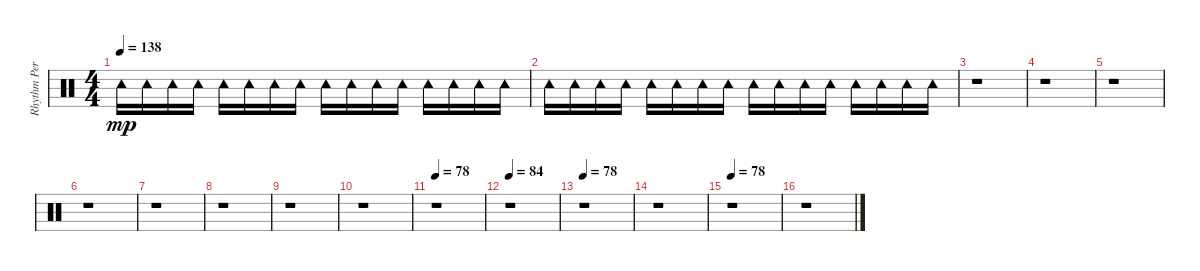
\track ("Rhythm Percussion" "Rhythm Per") {instrument percussion}
\staff {score}
\articulation defaults
\ts (4 4)
\tempo 138
\clef neutral
\ks c "Tambourine (hit)".16{dy mp} "Tambourine (hit)".16 "Tambourine (hit)".16 "Tambourine (hit)".16 "Tambourine (hit)".16 "Tambourine (hit)".16 "Tambourine (hit)".16 "Tambourine (hit)".16 "Tambourine (hit)".16 "Tambourine (hit)".16 "Tambourine (hit)".16 "Tambourine (hit)".16 "Tambourine (hit)".16 "Tambourine (hit)".16 "Tambourine (hit)".16 "Tambourine (hit)".16
|
"Tambourine (hit)".16 "Tambourine (hit)".16 "Tambourine (hit)".16 "Tambourine (hit)".16 "Tambourine (hit)".16 "Tambourine (hit)".16 "Tambourine (hit)".16 "Tambourine (hit)".16 "Tambourine (hit)".16 "Tambourine (hit)".16 "Tambourine (hit)".16 "Tambourine (hit)".16 "Tambourine (hit)".16 "Tambourine (hit)".16 "Tambourine (hit)".16 "Tambourine (hit)".16 |
r.1 |
r.1 |
r.1 |
r.1 |
r.1 |
r.1 |
r.1 |
r.1 |
\tempo 78
r.1 |
\tempo 84
r.1 |
\tempo 78
r.1 |
r.1 |
\tempo 78
r.1 |
r.1
